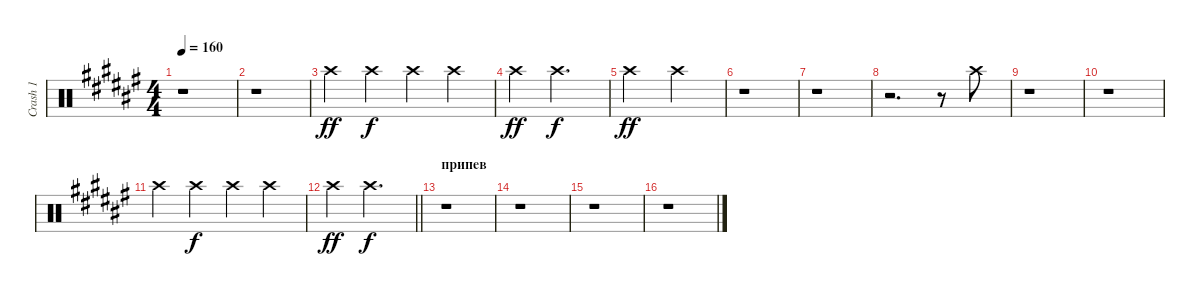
\track ("Crash 1" "Crash 1") {instrument percussion}
\staff {score}
\articulation defaults
\ts (4 4)
\tempo 160
\clef neutral
\ks d#minor
r.1{dy ff} |
r.1 |
"Crash high (hit)".4 "Crash high (hit)".4{dy f} "Crash high (hit)".4 "Crash high (hit)".4 |
"Crash high (hit)".4{dy ff} "Crash high (hit)".2{d dy f} |
"Crash high (hit)".2{dy ff} "Crash high (hit)".2 |
r.1 |
r.1 |
r.2{d} r.8 "Crash high (hit)".8 |
r.1 |
r.1 |
"Crash high (hit)".4 "Crash high (hit)".4{dy f} "Crash high (hit)".4 "Crash high (hit)".4 |
\barLineRight lightlight "Crash high (hit)".4{dy ff} "Crash high (hit)".2{d dy f}
|
\section ("" "припев")
r.1 |
r.1 |
r.1 |
r.1
